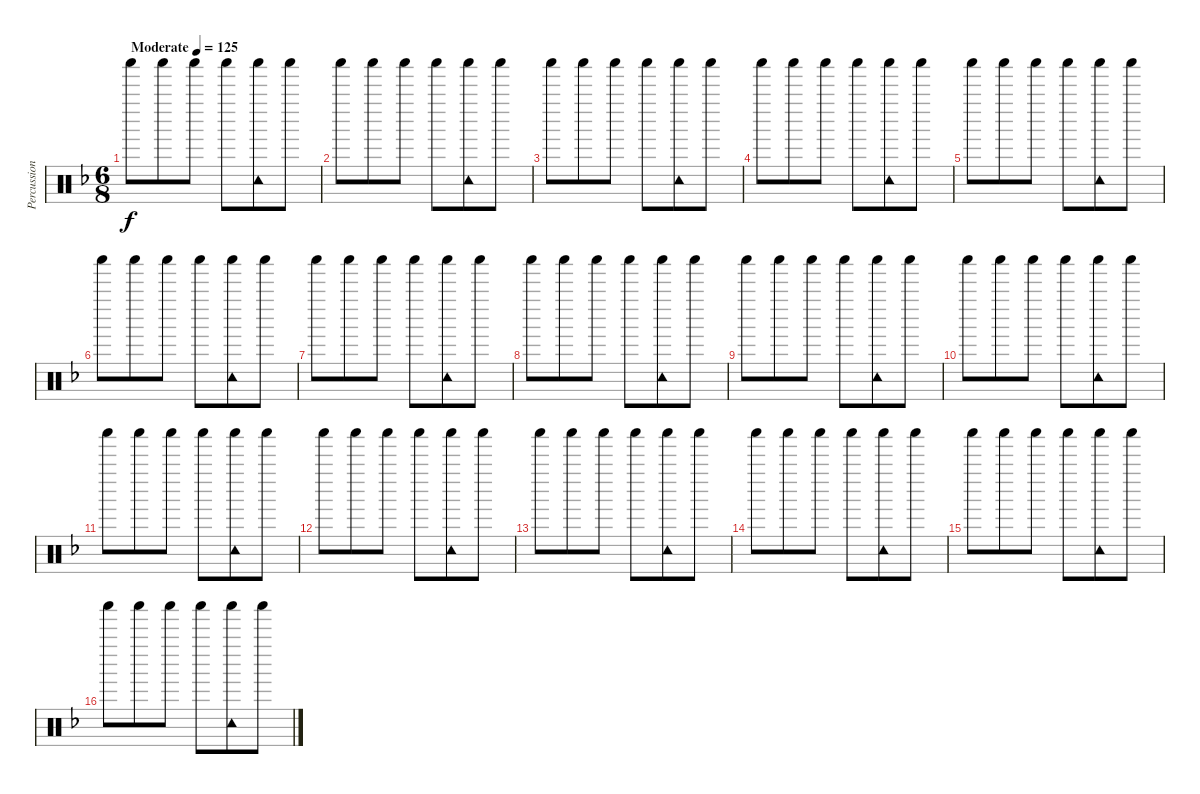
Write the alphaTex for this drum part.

\track ("Percussion" "Percussion") {instrument percussion}
\staff {score}
\articulation defaults
\ts (6 8)
\tempo (125 "Moderate")
\clef neutral
\ks f "Shaker (hit)".8{dy f} "Shaker (hit)".8 "Shaker (hit)".8 "Shaker (hit)".8
("Shaker (hit)" "Tambourine (hit)").8 "Shaker (hit)".8 |
"Shaker (hit)".8 "Shaker (hit)".8 "Shaker (hit)".8 "Shaker (hit)".8 ("Shaker (hit)" "Tambourine (hit)").8 "Shaker (hit)".8 |
"Shaker (hit)".8 "Shaker (hit)".8 "Shaker (hit)".8 "Shaker (hit)".8 ("Shaker (hit)" "Tambourine (hit)").8 "Shaker (hit)".8 |
"Shaker (hit)".8 "Shaker (hit)".8 "Shaker (hit)".8 "Shaker (hit)".8 ("Shaker (hit)" "Tambourine (hit)").8 "Shaker (hit)".8 |
"Shaker (hit)".8 "Shaker (hit)".8 "Shaker (hit)".8 "Shaker (hit)".8 ("Shaker (hit)" "Tambourine (hit)").8 "Shaker (hit)".8 |
"Shaker (hit)".8 "Shaker (hit)".8 "Shaker (hit)".8 "Shaker (hit)".8 ("Shaker (hit)" "Tambourine (hit)").8 "Shaker (hit)".8 |
"Shaker (hit)".8 "Shaker (hit)".8 "Shaker (hit)".8 "Shaker (hit)".8 ("Shaker (hit)" "Tambourine (hit)").8 "Shaker (hit)".8 |
"Shaker (hit)".8 "Shaker (hit)".8 "Shaker (hit)".8 "Shaker (hit)".8 ("Shaker (hit)" "Tambourine (hit)").8 "Shaker (hit)".8 |
"Shaker (hit)".8 "Shaker (hit)".8 "Shaker (hit)".8 "Shaker (hit)".8 ("Shaker (hit)" "Tambourine (hit)").8 "Shaker (hit)".8 |
"Shaker (hit)".8 "Shaker (hit)".8 "Shaker (hit)".8 "Shaker (hit)".8 ("Shaker (hit)" "Tambourine (hit)").8 "Shaker (hit)".8 |
"Shaker (hit)".8 "Shaker (hit)".8 "Shaker (hit)".8 "Shaker (hit)".8 ("Shaker (hit)" "Tambourine (hit)").8 "Shaker (hit)".8 |
"Shaker (hit)".8 "Shaker (hit)".8 "Shaker (hit)".8 "Shaker (hit)".8 ("Shaker (hit)" "Tambourine (hit)").8 "Shaker (hit)".8 |
"Shaker (hit)".8 "Shaker (hit)".8 "Shaker (hit)".8 "Shaker (hit)".8 ("Shaker (hit)" "Tambourine (hit)").8 "Shaker (hit)".8 |
"Shaker (hit)".8 "Shaker (hit)".8 "Shaker (hit)".8 "Shaker (hit)".8 ("Shaker (hit)" "Tambourine (hit)").8 "Shaker (hit)".8 |
"Shaker (hit)".8 "Shaker (hit)".8 "Shaker (hit)".8 "Shaker (hit)".8 ("Shaker (hit)" "Tambourine (hit)").8 "Shaker (hit)".8 |
"Shaker (hit)".8 "Shaker (hit)".8 "Shaker (hit)".8 "Shaker (hit)".8 ("Shaker (hit)" "Tambourine (hit)").8 "Shaker (hit)".8
